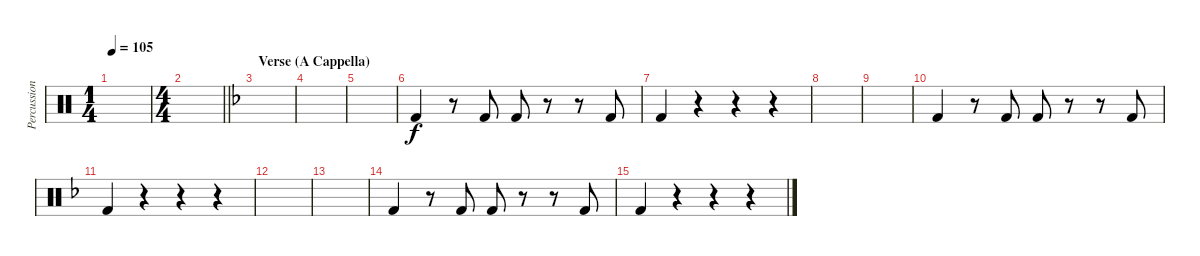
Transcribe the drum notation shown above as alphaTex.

\track ("Percussion" "Percussion") {instrument percussion}
\staff {score}
\articulation defaults
\ts (1 4)
\tempo 105
\clef neutral
\ks c
|
\ts (4 4)
\barLineRight lightlight
|
\section ("" "Verse (A Cappella)")
\ks f
|
|
|
"Kick (hit) 2".4 r.8 "Kick (hit) 2".8 "Kick (hit) 2".8 r.8 r.8 "Kick (hit) 2".8 |
"Kick (hit) 2".4 r.4 r.4 r.4 |
|
|
"Kick (hit) 2".4 r.8 "Kick (hit) 2".8 "Kick (hit) 2".8 r.8 r.8 "Kick (hit) 2".8 |
"Kick (hit) 2".4 r.4 r.4 r.4 |
|
|
"Kick (hit) 2".4 r.8 "Kick (hit) 2".8 "Kick (hit) 2".8 r.8 r.8 "Kick (hit) 2".8 |
"Kick (hit) 2".4 r.4 r.4 r.4
